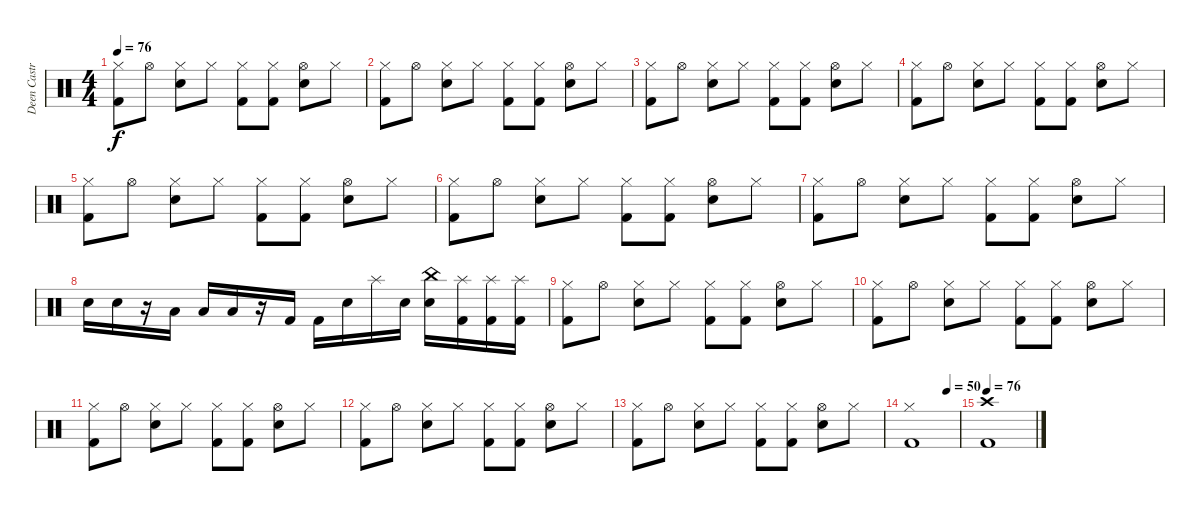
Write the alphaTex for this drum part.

\track ("Deen Castronovo" "Deen Castr") {instrument percussion}
\staff {score}
\articulation defaults
\ts (4 4)
\tempo 76
\clef neutral
\ks c
("Kick (hit) 2" "Hi-Hat (closed)").8{dy f} "Hi-Hat (open)".8 ("Electric Snare (hit)" "Hi-Hat (closed)").8 "Hi-Hat (closed)".8 ("Kick (hit) 2" "Hi-Hat (closed)").8 ("Kick (hit) 2" "Hi-Hat (closed)").8 ("Electric Snare (hit)" "Hi-Hat (open)").8 "Hi-Hat (closed)".8 |
("Kick (hit) 2" "Hi-Hat (closed)").8 "Hi-Hat (open)".8 ("Electric Snare (hit)" "Hi-Hat (closed)").8 "Hi-Hat (closed)".8 ("Kick (hit) 2" "Hi-Hat (closed)").8 ("Kick (hit) 2" "Hi-Hat (closed)").8 ("Electric Snare (hit)" "Hi-Hat (open)").8 "Hi-Hat (closed)".8 |
("Kick (hit) 2" "Hi-Hat (closed)").8 "Hi-Hat (open)".8 ("Electric Snare (hit)" "Hi-Hat (closed)").8 "Hi-Hat (closed)".8 ("Kick (hit) 2" "Hi-Hat (closed)").8 ("Kick (hit) 2" "Hi-Hat (closed)").8 ("Electric Snare (hit)" "Hi-Hat (open)").8 "Hi-Hat (closed)".8 |
("Kick (hit) 2" "Hi-Hat (closed)").8 "Hi-Hat (open)".8 ("Electric Snare (hit)" "Hi-Hat (closed)").8 "Hi-Hat (closed)".8 ("Kick (hit) 2" "Hi-Hat (closed)").8 ("Kick (hit) 2" "Hi-Hat (closed)").8 ("Electric Snare (hit)" "Hi-Hat (open)").8 "Hi-Hat (closed)".8 |
("Kick (hit) 2" "Hi-Hat (closed)").8 "Hi-Hat (open)".8 ("Electric Snare (hit)" "Hi-Hat (closed)").8 "Hi-Hat (closed)".8 ("Kick (hit) 2" "Hi-Hat (closed)").8 ("Kick (hit) 2" "Hi-Hat (closed)").8 ("Electric Snare (hit)" "Hi-Hat (open)").8 "Hi-Hat (closed)".8 |
("Kick (hit) 2" "Hi-Hat (closed)").8 "Hi-Hat (open)".8 ("Electric Snare (hit)" "Hi-Hat (closed)").8 "Hi-Hat (closed)".8 ("Kick (hit) 2" "Hi-Hat (closed)").8 ("Kick (hit) 2" "Hi-Hat (closed)").8 ("Electric Snare (hit)" "Hi-Hat (open)").8 "Hi-Hat (closed)".8 |
("Kick (hit) 2" "Hi-Hat (closed)").8 "Hi-Hat (open)".8 ("Electric Snare (hit)" "Hi-Hat (closed)").8 "Hi-Hat (closed)".8 ("Kick (hit) 2" "Hi-Hat (closed)").8 ("Kick (hit) 2" "Hi-Hat (closed)").8 ("Electric Snare (hit)" "Hi-Hat (open)").8 "Hi-Hat (closed)".8 |
"Electric Snare (hit)".16 "Electric Snare (hit)".16 r.16 "Low Tom (hit)".16 "Low Tom (hit)".16 "Low Tom (hit)".16 r.16 "Kick (hit) 2".16 "Kick (hit) 2".16 "Electric Snare (hit)".16 "Splash (hit)".16 "Electric Snare (hit)".16 ("Electric Snare (hit)" "China (hit)").16 ("Kick (hit) 2" "Splash (hit)").16 ("Kick (hit) 2" "Splash (hit)").16 ("Kick (hit) 2" "Splash (hit)").16 |
("Kick (hit) 2" "Hi-Hat (closed)").8 "Hi-Hat (open)".8 ("Electric Snare (hit)" "Hi-Hat (closed)").8 "Hi-Hat (closed)".8 ("Kick (hit) 2" "Hi-Hat (closed)").8 ("Kick (hit) 2" "Hi-Hat (closed)").8 ("Electric Snare (hit)" "Hi-Hat (open)").8 "Hi-Hat (closed)".8 |
("Kick (hit) 2" "Hi-Hat (closed)").8 "Hi-Hat (open)".8 ("Electric Snare (hit)" "Hi-Hat (closed)").8 "Hi-Hat (closed)".8 ("Kick (hit) 2" "Hi-Hat (closed)").8 ("Kick (hit) 2" "Hi-Hat (closed)").8 ("Electric Snare (hit)" "Hi-Hat (open)").8 "Hi-Hat (closed)".8 |
("Kick (hit) 2" "Hi-Hat (closed)").8 "Hi-Hat (open)".8 ("Electric Snare (hit)" "Hi-Hat (closed)").8 "Hi-Hat (closed)".8 ("Kick (hit) 2" "Hi-Hat (closed)").8 ("Kick (hit) 2" "Hi-Hat (closed)").8 ("Electric Snare (hit)" "Hi-Hat (open)").8 "Hi-Hat (closed)".8 |
("Kick (hit) 2" "Hi-Hat (closed)").8 "Hi-Hat (open)".8 ("Electric Snare (hit)" "Hi-Hat (closed)").8 "Hi-Hat (closed)".8 ("Kick (hit) 2" "Hi-Hat (closed)").8 ("Kick (hit) 2" "Hi-Hat (closed)").8 ("Electric Snare (hit)" "Hi-Hat (open)").8 "Hi-Hat (closed)".8 |
("Kick (hit) 2" "Hi-Hat (closed)").8 "Hi-Hat (open)".8 ("Electric Snare (hit)" "Hi-Hat (closed)").8 "Hi-Hat (closed)".8 ("Kick (hit) 2" "Hi-Hat (closed)").8 ("Kick (hit) 2" "Hi-Hat (closed)").8 ("Electric Snare (hit)" "Hi-Hat (open)").8 "Hi-Hat (closed)".8 |
\tempo (50 0.75)
("Kick (hit) 2" "Hi-Hat (closed)").1 |
\tempo 76
("Kick (hit) 2" "Crash high (hit)").1
